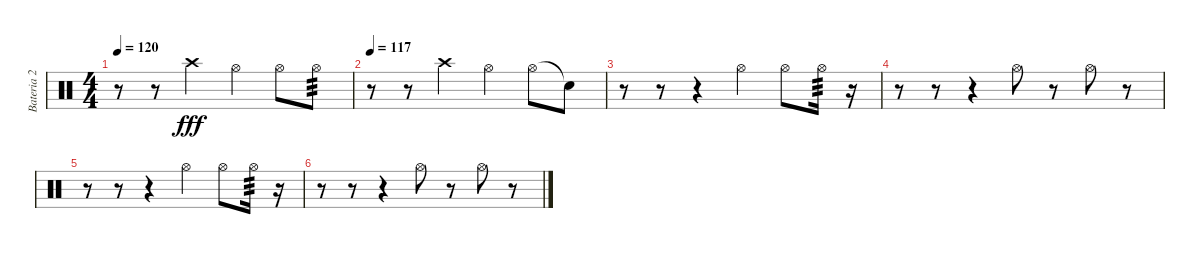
\track ("Bateria 2" "Bateria 2") {instrument percussion}
\staff {score}
\articulation defaults
\ts (4 4)
\tempo 120
\clef neutral
\ks c
r.8{dy f} r.8 "Crash high (hit)".4{dy fff} "Hi-Hat (open)".4 "Hi-Hat (open)".8 "Hi-Hat (open)".8{tp 3} |
\tempo 117
r.8 r.8 "Crash high (hit)".4 "Hi-Hat (open)".4 "Hi-Hat (open)".8 "Snare (hit)"{t}.8 |
r.8 r.8 r.4 "Hi-Hat (open)".4 "Hi-Hat (open)".8 "Hi-Hat (open)".16{tp 3} r.16 |
r.8 r.8 r.4 "Hi-Hat (open)".8 r.8 "Hi-Hat (open)".8 r.8 |
r.8 r.8 r.4 "Hi-Hat (open)".4 "Hi-Hat (open)".8 "Hi-Hat (open)".16{tp 3} r.16 |
r.8 r.8 r.4 "Hi-Hat (open)".8 r.8 "Hi-Hat (open)".8 r.8
